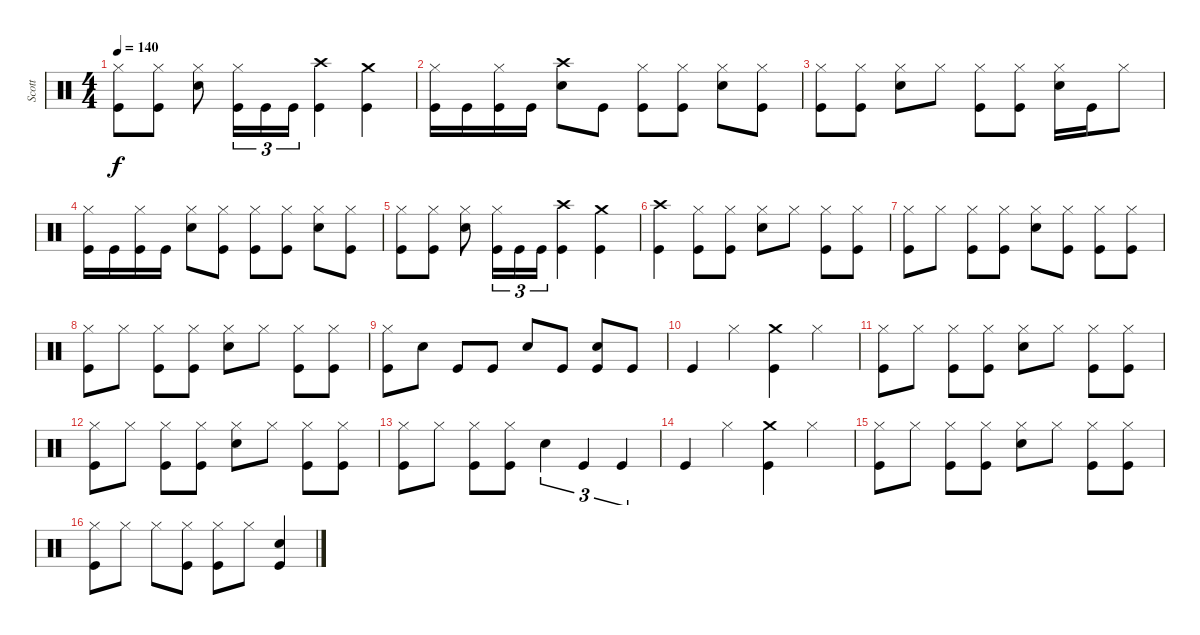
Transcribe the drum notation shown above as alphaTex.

\track ("Scott" "Scott") {instrument percussion}
\staff {score}
\articulation defaults
\ts (4 4)
\tempo 140
\clef neutral
\ks c
("Kick (hit)" "Hi-Hat (closed)").8{dy f} ("Kick (hit)" "Hi-Hat (closed)").8 ("Snare (hit) 2" "Hi-Hat (closed)").8 ("Kick (hit)" "Hi-Hat (closed)").16{tu (3 2)} "Kick (hit)".16{tu (3 2)} "Kick (hit)".16{tu (3 2)} ("Kick (hit)" "Crash high (hit)").4 ("Kick (hit)" "Crash medium (hit)").4 |
("Kick (hit)" "Hi-Hat (closed)").16 "Kick (hit)".16 ("Kick (hit)" "Hi-Hat (closed)").16 "Kick (hit)".16 ("Snare (hit) 2" "Crash high (hit)").8 "Kick (hit)".8 ("Kick (hit)" "Hi-Hat (closed)").8 ("Kick (hit)" "Hi-Hat (closed)").8 ("Snare (hit) 2" "Hi-Hat (closed)").8 ("Kick (hit)" "Hi-Hat (closed)").8 |
("Kick (hit)" "Hi-Hat (closed)").8 ("Kick (hit)" "Hi-Hat (closed)").8 ("Snare (hit) 2" "Hi-Hat (closed)").8 "Hi-Hat (closed)".8 ("Kick (hit)" "Hi-Hat (closed)").8 ("Kick (hit)" "Hi-Hat (closed)").8 ("Snare (hit) 2" "Hi-Hat (closed)").16 "Kick (hit)".16 "Hi-Hat (closed)".8 |
("Kick (hit)" "Hi-Hat (closed)").16 "Kick (hit)".16 ("Kick (hit)" "Hi-Hat (closed)").16 "Kick (hit)".16 ("Snare (hit) 2" "Hi-Hat (closed)").8 ("Kick (hit)" "Hi-Hat (closed)").8 ("Kick (hit)" "Hi-Hat (closed)").8 ("Kick (hit)" "Hi-Hat (closed)").8 ("Snare (hit) 2" "Hi-Hat (closed)").8 ("Kick (hit)" "Hi-Hat (closed)").8 |
("Kick (hit)" "Hi-Hat (closed)").8 ("Kick (hit)" "Hi-Hat (closed)").8 ("Snare (hit) 2" "Hi-Hat (closed)").8 ("Kick (hit)" "Hi-Hat (closed)").16{tu (3 2)} "Kick (hit)".16{tu (3 2)} "Kick (hit)".16{tu (3 2)} ("Kick (hit)" "Crash high (hit)").4 ("Kick (hit)" "Crash medium (hit)").4 |
("Kick (hit)" "Crash high (hit)").4 ("Kick (hit)" "Hi-Hat (closed)").8 ("Kick (hit)" "Hi-Hat (closed)").8 ("Snare (hit) 2" "Hi-Hat (closed)").8 "Hi-Hat (closed)".8 ("Kick (hit)" "Hi-Hat (closed)").8 ("Kick (hit)" "Hi-Hat (closed)").8 |
("Kick (hit)" "Hi-Hat (closed)").8 "Hi-Hat (closed)".8 ("Kick (hit)" "Hi-Hat (closed)").8 ("Kick (hit)" "Hi-Hat (closed)").8 ("Snare (hit) 2" "Hi-Hat (closed)").8 ("Kick (hit)" "Hi-Hat (closed)").8 ("Kick (hit)" "Hi-Hat (closed)").8 ("Kick (hit)" "Hi-Hat (closed)").8 |
("Kick (hit)" "Hi-Hat (closed)").8 "Hi-Hat (closed)".8 ("Kick (hit)" "Hi-Hat (closed)").8 ("Kick (hit)" "Hi-Hat (closed)").8 ("Snare (hit) 2" "Hi-Hat (closed)").8 "Hi-Hat (closed)".8 ("Kick (hit)" "Hi-Hat (closed)").8 ("Kick (hit)" "Hi-Hat (closed)").8 |
("Kick (hit)" "Hi-Hat (closed)").8 "Snare (hit) 2".8 "Kick (hit)".8 "Kick (hit)".8 "Snare (hit) 2".8 "Kick (hit)".8 ("Kick (hit)" "Snare (hit) 2").8 "Kick (hit)".8 |
"Kick (hit)".4 "Hi-Hat (closed)".4 ("Kick (hit)" "Crash medium (hit)").4 "Hi-Hat (closed)".4 |
("Kick (hit)" "Hi-Hat (closed)").8 "Hi-Hat (closed)".8 ("Kick (hit)" "Hi-Hat (closed)").8 ("Kick (hit)" "Hi-Hat (closed)").8 ("Snare (hit) 2" "Hi-Hat (closed)").8 "Hi-Hat (closed)".8 ("Kick (hit)" "Hi-Hat (closed)").8 ("Kick (hit)" "Hi-Hat (closed)").8 |
("Kick (hit)" "Hi-Hat (closed)").8 "Hi-Hat (closed)".8 ("Kick (hit)" "Hi-Hat (closed)").8 ("Kick (hit)" "Hi-Hat (closed)").8 ("Snare (hit) 2" "Hi-Hat (closed)").8 "Hi-Hat (closed)".8 ("Kick (hit)" "Hi-Hat (closed)").8 ("Kick (hit)" "Hi-Hat (closed)").8 |
("Kick (hit)" "Hi-Hat (closed)").8 "Hi-Hat (closed)".8 ("Kick (hit)" "Hi-Hat (closed)").8 ("Kick (hit)" "Hi-Hat (closed)").8 "Snare (hit) 2".4{tu (3 2)} "Kick (hit)".4{tu (3 2)} "Kick (hit)".4{tu (3 2)} |
"Kick (hit)".4 "Hi-Hat (closed)".4 ("Kick (hit)" "Crash medium (hit)").4 "Hi-Hat (closed)".4 |
("Kick (hit)" "Hi-Hat (closed)").8 "Hi-Hat (closed)".8 ("Kick (hit)" "Hi-Hat (closed)").8 ("Kick (hit)" "Hi-Hat (closed)").8 ("Snare (hit) 2" "Hi-Hat (closed)").8 "Hi-Hat (closed)".8 ("Kick (hit)" "Hi-Hat (closed)").8 ("Kick (hit)" "Hi-Hat (closed)").8 |
("Kick (hit)" "Hi-Hat (closed)").8 "Hi-Hat (closed)".8 "Hi-Hat (closed)".8 ("Kick (hit)" "Hi-Hat (closed)").8 ("Kick (hit)" "Hi-Hat (closed)").8 "Hi-Hat (closed)".8 ("Kick (hit)" "Snare (hit) 2").4
